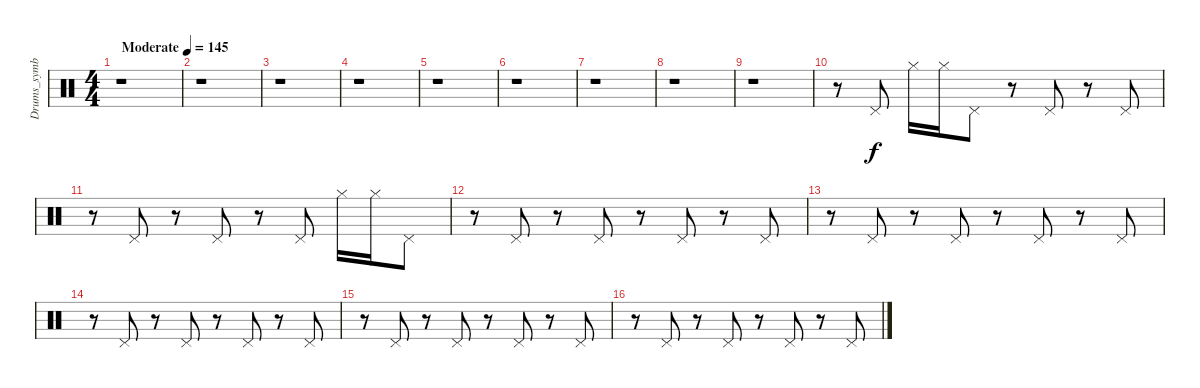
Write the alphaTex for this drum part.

\track ("Drums_symbal" "Drums_symb") {instrument percussion}
\staff {score}
\articulation defaults
\ts (4 4)
\tempo (145 "Moderate")
\clef neutral
\ks c
r.1{dy f} |
r.1 |
r.1 |
r.1 |
r.1 |
r.1 |
r.1 |
r.1 |
r.1 |
r.8 "Pedal Hi-Hat (hit)".8 "Hi-Hat (closed)".16 "Hi-Hat (closed)".16 "Pedal Hi-Hat (hit)".8 r.8 "Pedal Hi-Hat (hit)".8 r.8 "Pedal Hi-Hat (hit)".8 |
r.8 "Pedal Hi-Hat (hit)".8 r.8 "Pedal Hi-Hat (hit)".8 r.8 "Pedal Hi-Hat (hit)".8 "Hi-Hat (closed)".16 "Hi-Hat (closed)".16 "Pedal Hi-Hat (hit)".8 |
r.8 "Pedal Hi-Hat (hit)".8 r.8 "Pedal Hi-Hat (hit)".8 r.8 "Pedal Hi-Hat (hit)".8 r.8 "Pedal Hi-Hat (hit)".8 |
r.8 "Pedal Hi-Hat (hit)".8 r.8 "Pedal Hi-Hat (hit)".8 r.8 "Pedal Hi-Hat (hit)".8 r.8 "Pedal Hi-Hat (hit)".8 |
r.8 "Pedal Hi-Hat (hit)".8 r.8 "Pedal Hi-Hat (hit)".8 r.8 "Pedal Hi-Hat (hit)".8 r.8 "Pedal Hi-Hat (hit)".8 |
r.8 "Pedal Hi-Hat (hit)".8 r.8 "Pedal Hi-Hat (hit)".8 r.8 "Pedal Hi-Hat (hit)".8 r.8 "Pedal Hi-Hat (hit)".8 |
r.8 "Pedal Hi-Hat (hit)".8 r.8 "Pedal Hi-Hat (hit)".8 r.8 "Pedal Hi-Hat (hit)".8 r.8 "Pedal Hi-Hat (hit)".8
